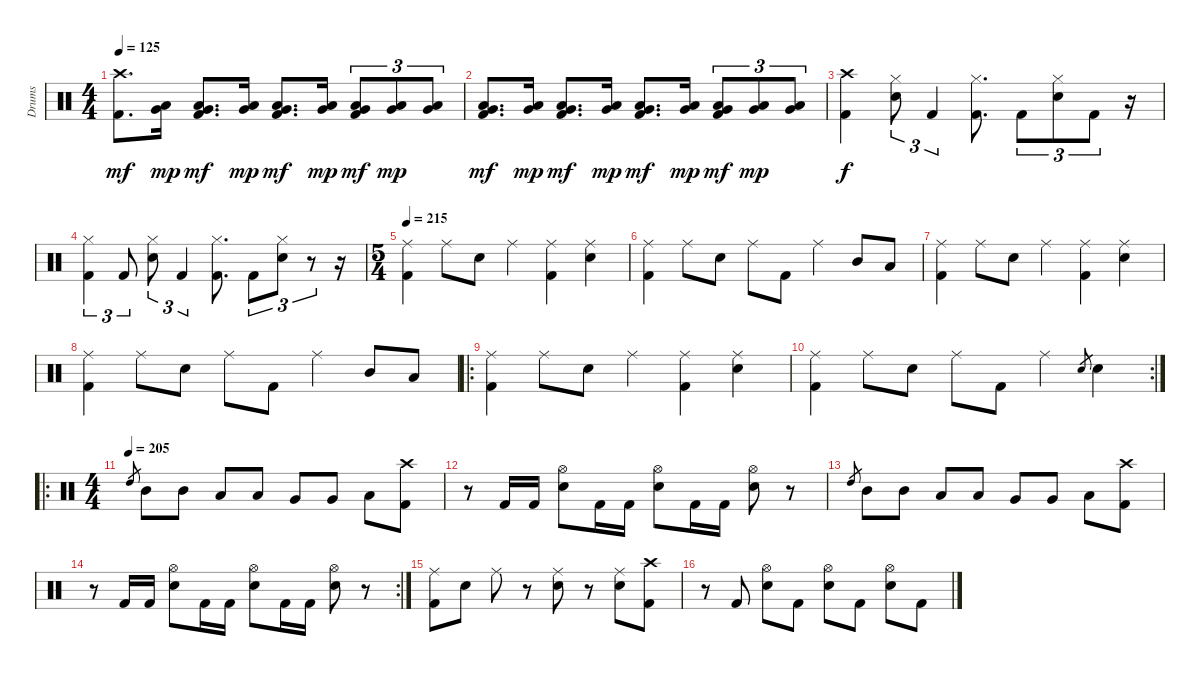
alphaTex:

\track ("Drums" "Drums") {instrument percussion}
\staff {score}
\articulation defaults
\ts (4 4)
\tempo 125
\clef neutral
\ks c
("Crash high (hit)" "Kick (hit) 2").8{d dy mf} ("Very Low Tom (hit)" "Low Floor Tom (hit)").16{dy mp} ("Very Low Tom (hit)" "Low Floor Tom (hit)" "Kick (hit) 2").8{d dy mf} ("Very Low Tom (hit)" "Low Floor Tom (hit)").16{dy mp} ("Very Low Tom (hit)" "Low Floor Tom (hit)" "Kick (hit) 2").8{d dy mf} ("Very Low Tom (hit)" "Low Floor Tom (hit)").16{dy mp} ("Very Low Tom (hit)" "Low Floor Tom (hit)" "Kick (hit) 2").8{tu (3 2) dy mf} ("Very Low Tom (hit)" "Low Floor Tom (hit)").8{tu (3 2) dy mp} ("Very Low Tom (hit)" "Low Floor Tom (hit)").8{tu (3 2)} |
("Very Low Tom (hit)" "Low Floor Tom (hit)" "Kick (hit) 2").8{d dy mf} ("Very Low Tom (hit)" "Low Floor Tom (hit)").16{dy mp} ("Very Low Tom (hit)" "Low Floor Tom (hit)" "Kick (hit) 2").8{d dy mf} ("Very Low Tom (hit)" "Low Floor Tom (hit)").16{dy mp} ("Very Low Tom (hit)" "Low Floor Tom (hit)" "Kick (hit) 2").8{d dy mf} ("Very Low Tom (hit)" "Low Floor Tom (hit)").16{dy mp} ("Very Low Tom (hit)" "Low Floor Tom (hit)" "Kick (hit) 2").8{tu (3 2) dy mf} ("Very Low Tom (hit)" "Low Floor Tom (hit)").8{tu (3 2) dy mp} ("Very Low Tom (hit)" "Low Floor Tom (hit)").8{tu (3 2)} |
("Crash high (hit)" "Kick (hit) 2").4{dy f} ("Hi-Hat (closed)" "Electric Snare (hit)").8{tu (3 2)} "Kick (hit) 2".4{tu (3 2)} ("Hi-Hat (closed)" "Kick (hit) 2").8{d} "Kick (hit) 2".8{tu (3 2)} ("Hi-Hat (closed)" "Electric Snare (hit)").8{tu (3 2)} "Kick (hit) 2".8{tu (3 2)} r.16 |
("Hi-Hat (closed)" "Kick (hit) 2").4{tu (3 2)} "Kick (hit) 2".8{tu (3 2)} ("Hi-Hat (closed)" "Electric Snare (hit)").8{tu (3 2)} "Kick (hit) 2".4{tu (3 2)} ("Hi-Hat (closed)" "Kick (hit) 2").8{d} "Kick (hit) 2".8{tu (3 2)} ("Hi-Hat (closed)" "Electric Snare (hit)").8{tu (3 2)} r.8{tu (3 2)} r.16 |
\ts (5 4)
\tempo 215
("Ride (middle)" "Kick (hit) 2").4 "Ride (middle)".8 "Electric Snare (hit)".8 "Ride (middle)".4 ("Ride (middle)" "Kick (hit) 2").4 ("Ride (middle)" "Electric Snare (hit)").4 |
("Ride (middle)" "Kick (hit) 2").4 "Ride (middle)".8 "Electric Snare (hit)".8 "Ride (middle)".8 "Kick (hit) 2".8 "Ride (middle)".4 "Mid Tom (hit)".8 "Low Tom (hit)".8 |
("Ride (middle)" "Kick (hit) 2").4 "Ride (middle)".8 "Electric Snare (hit)".8 "Ride (middle)".4 ("Ride (middle)" "Kick (hit) 2").4 ("Ride (middle)" "Electric Snare (hit)").4 |
("Ride (middle)" "Kick (hit) 2").4 "Ride (middle)".8 "Electric Snare (hit)".8 "Ride (middle)".8 "Kick (hit) 2".8 "Ride (middle)".4 "Mid Tom (hit)".8 "Low Tom (hit)".8 |
\ro
("Ride (middle)" "Kick (hit) 2").4 "Ride (middle)".8 "Electric Snare (hit)".8 "Ride (middle)".4 ("Ride (middle)" "Kick (hit) 2").4 ("Ride (middle)" "Electric Snare (hit)").4 |
\rc 2
("Ride (middle)" "Kick (hit) 2").4 "Ride (middle)".8 "Electric Snare (hit)".8 "Ride (middle)".8 "Kick (hit) 2".8 "Ride (middle)".4 "Electric Snare (hit)".8{gr} "Electric Snare (hit)".4 |
\ro
\ts (4 4)
\tempo (205)
"High Tom (hit)".8{gr} "Mid Tom (hit)".8 "Mid Tom (hit)".8 "Low Tom (hit)".8 "Low Tom (hit)".8 "Very Low Tom (hit)".8 "Very Low Tom (hit)".8 "Low Floor Tom (hit)".8 ("Crash high (hit)" "Kick (hit) 2").8 |
r.8 "Kick (hit) 2".16 "Kick (hit) 2".16 ("Hi-Hat (open)" "Electric Snare (hit)").8 "Kick (hit) 2".16 "Kick (hit) 2".16 ("Hi-Hat (open)" "Electric Snare (hit)").8 "Kick (hit) 2".16 "Kick (hit) 2".16 ("Hi-Hat (open)" "Electric Snare (hit)").8 r.8 |
"High Tom (hit)".8{gr} "Mid Tom (hit)".8 "Mid Tom (hit)".8 "Low Tom (hit)".8 "Low Tom (hit)".8 "Very Low Tom (hit)".8 "Very Low Tom (hit)".8 "Low Floor Tom (hit)".8 ("Crash high (hit)" "Kick (hit) 2").8 |
\rc 2
r.8 "Kick (hit) 2".16 "Kick (hit) 2".16 ("Hi-Hat (open)" "Electric Snare (hit)").8 "Kick (hit) 2".16 "Kick (hit) 2".16 ("Hi-Hat (open)" "Electric Snare (hit)").8 "Kick (hit) 2".16 "Kick (hit) 2".16 ("Hi-Hat (open)" "Electric Snare (hit)").8 r.8 |
("Ride (middle)" "Kick (hit) 2").8 "Electric Snare (hit)".8 "Ride (middle)".8 r.8 ("Ride (middle)" "Electric Snare (hit)").8 r.8 ("Ride (middle)" "Electric Snare (hit)").8 ("Crash high (hit)" "Kick (hit) 2").8 |
r.8 "Kick (hit) 2".8 ("Hi-Hat (open)" "Electric Snare (hit)").8 "Kick (hit) 2".8 ("Hi-Hat (open)" "Electric Snare (hit)").8 "Kick (hit) 2".8 ("Hi-Hat (open)" "Electric Snare (hit)").8 "Kick (hit) 2".8
